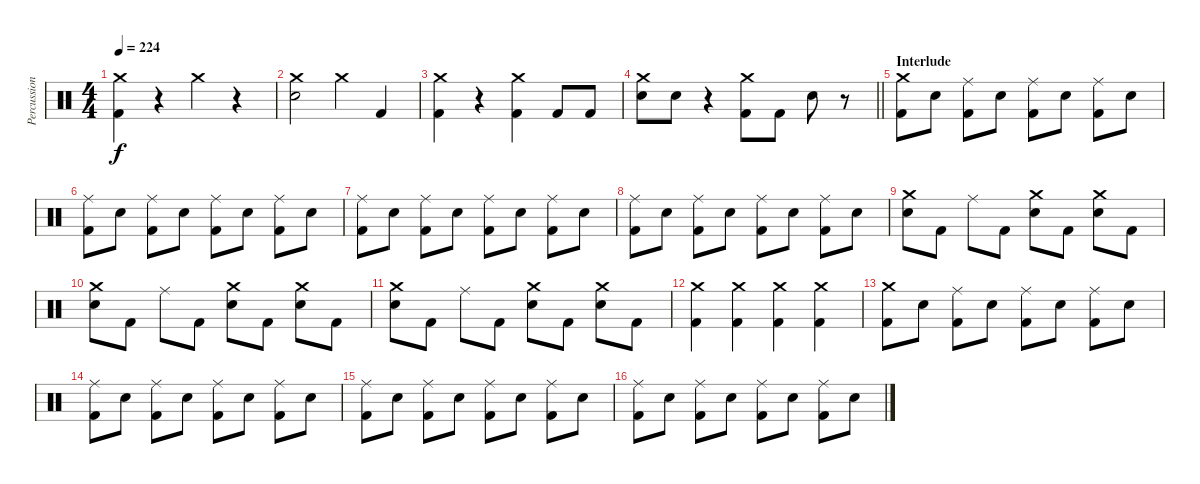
\track ("Percussion" "Percussion") {instrument percussion}
\staff {score}
\articulation defaults
\ts (4 4)
\tempo 224
\clef neutral
\ks c
("Kick (hit) 2" "Crash medium (hit)").4{dy f} r.4 "Crash medium (hit)".4 r.4 |
("Snare (hit) 2" "Crash medium (hit)").2 "Crash medium (hit)".4 "Kick (hit) 2".4 |
("Kick (hit) 2" "Crash medium (hit)").4 r.4 ("Kick (hit) 2" "Crash medium (hit)").4 "Kick (hit) 2".8 "Kick (hit) 2".8 |
\barLineRight lightlight
("Snare (hit) 2" "Crash medium (hit)").8 "Snare (hit) 2".8 r.4 ("Kick (hit) 2" "Crash medium (hit)").8 "Kick (hit) 2".8 "Snare (hit) 2".8 r.8 |
\section ("" "Interlude")
("Kick (hit) 2" "Crash medium (hit)").8 "Snare (hit) 2".8 ("Kick (hit) 2" "Ride (middle)").8 "Snare (hit) 2".8 ("Kick (hit) 2" "Ride (middle)").8 "Snare (hit) 2".8 ("Kick (hit) 2" "Ride (middle)").8 "Snare (hit) 2".8 |
("Kick (hit) 2" "Ride (middle)").8 "Snare (hit) 2".8 ("Kick (hit) 2" "Ride (middle)").8 "Snare (hit) 2".8 ("Kick (hit) 2" "Ride (middle)").8 "Snare (hit) 2".8 ("Kick (hit) 2" "Ride (middle)").8 "Snare (hit) 2".8 |
("Kick (hit) 2" "Ride (middle)").8 "Snare (hit) 2".8 ("Kick (hit) 2" "Ride (middle)").8 "Snare (hit) 2".8 ("Kick (hit) 2" "Ride (middle)").8 "Snare (hit) 2".8 ("Kick (hit) 2" "Ride (middle)").8 "Snare (hit) 2".8 |
("Kick (hit) 2" "Ride (middle)").8 "Snare (hit) 2".8 ("Kick (hit) 2" "Ride (middle)").8 "Snare (hit) 2".8 ("Kick (hit) 2" "Ride (middle)").8 "Snare (hit) 2".8 ("Kick (hit) 2" "Ride (middle)").8 "Snare (hit) 2".8 |
("Snare (hit) 2" "Crash medium (hit)").8 "Kick (hit) 2".8 "Ride (middle)".8 "Kick (hit) 2".8 ("Snare (hit) 2" "Crash medium (hit)").8 "Kick (hit) 2".8 ("Snare (hit) 2" "Crash medium (hit)").8 "Kick (hit) 2".8 |
("Snare (hit) 2" "Crash medium (hit)").8 "Kick (hit) 2".8 "Ride (middle)".8 "Kick (hit) 2".8 ("Snare (hit) 2" "Crash medium (hit)").8 "Kick (hit) 2".8 ("Snare (hit) 2" "Crash medium (hit)").8 "Kick (hit) 2".8 |
("Snare (hit) 2" "Crash medium (hit)").8 "Kick (hit) 2".8 "Ride (middle)".8 "Kick (hit) 2".8 ("Snare (hit) 2" "Crash medium (hit)").8 "Kick (hit) 2".8 ("Snare (hit) 2" "Crash medium (hit)").8 "Kick (hit) 2".8 |
("Kick (hit) 2" "Crash medium (hit)").4 ("Kick (hit) 2" "Crash medium (hit)").4 ("Kick (hit) 2" "Crash medium (hit)").4 ("Kick (hit) 2" "Crash medium (hit)").4 |
("Kick (hit) 2" "Crash medium (hit)").8 "Snare (hit) 2".8 ("Kick (hit) 2" "Ride (middle)").8 "Snare (hit) 2".8 ("Kick (hit) 2" "Ride (middle)").8 "Snare (hit) 2".8 ("Kick (hit) 2" "Ride (middle)").8 "Snare (hit) 2".8 |
("Kick (hit) 2" "Ride (middle)").8 "Snare (hit) 2".8 ("Kick (hit) 2" "Ride (middle)").8 "Snare (hit) 2".8 ("Kick (hit) 2" "Ride (middle)").8 "Snare (hit) 2".8 ("Kick (hit) 2" "Ride (middle)").8 "Snare (hit) 2".8 |
("Kick (hit) 2" "Ride (middle)").8 "Snare (hit) 2".8 ("Kick (hit) 2" "Ride (middle)").8 "Snare (hit) 2".8 ("Kick (hit) 2" "Ride (middle)").8 "Snare (hit) 2".8 ("Kick (hit) 2" "Ride (middle)").8 "Snare (hit) 2".8 |
("Kick (hit) 2" "Ride (middle)").8 "Snare (hit) 2".8 ("Kick (hit) 2" "Ride (middle)").8 "Snare (hit) 2".8 ("Kick (hit) 2" "Ride (middle)").8 "Snare (hit) 2".8 ("Kick (hit) 2" "Ride (middle)").8 "Snare (hit) 2".8
